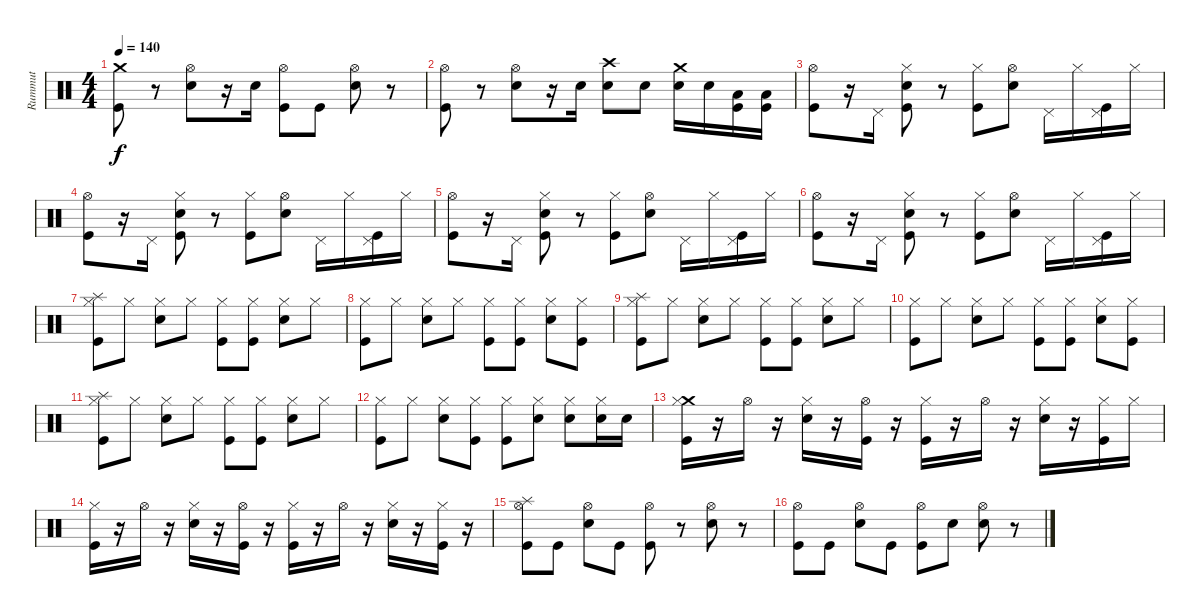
\track ("Rummut" "Rummut") {instrument percussion}
\staff {score}
\articulation defaults
\ts (4 4)
\tempo 140
\clef neutral
\ks c
("Crash medium (hit)" "Kick (hit)").8{dy f} r.8 ("Hi-Hat (open)" "Snare (hit) 2").8 r.16 "Snare (hit) 2".16 ("Hi-Hat (open)" "Kick (hit)").8 "Kick (hit)".8 ("Hi-Hat (open)" "Snare (hit) 2").8 r.8 |
("Hi-Hat (open)" "Kick (hit)").8 r.8 ("Hi-Hat (open)" "Snare (hit) 2").8 r.16 "Snare (hit) 2".16 ("Crash high (hit)" "Snare (hit) 2").8 "Snare (hit) 2".8 ("Crash medium (hit)" "Snare (hit) 2").16 "Snare (hit) 2".16 ("Low Tom (hit)" "Kick (hit)").16 ("Low Tom (hit)" "Kick (hit)").16 |
("Hi-Hat (open)" "Kick (hit)").8 r.16 "Pedal Hi-Hat (hit)".16 ("Hi-Hat (closed)" "Kick (hit)" "Snare (hit) 2").8 r.8 ("Hi-Hat (closed)" "Kick (hit)").8 ("Hi-Hat (open)" "Snare (hit) 2").8 "Pedal Hi-Hat (hit)".16 "Hi-Hat (closed)".16 ("Pedal Hi-Hat (hit)" "Kick (hit)").16 "Hi-Hat (closed)".16 |
("Hi-Hat (open)" "Kick (hit)").8 r.16 "Pedal Hi-Hat (hit)".16 ("Hi-Hat (closed)" "Kick (hit)" "Snare (hit) 2").8 r.8 ("Hi-Hat (closed)" "Kick (hit)").8 ("Hi-Hat (open)" "Snare (hit) 2").8 "Pedal Hi-Hat (hit)".16 "Hi-Hat (closed)".16 ("Pedal Hi-Hat (hit)" "Kick (hit)").16 "Hi-Hat (closed)".16 |
("Hi-Hat (open)" "Kick (hit)").8 r.16 "Pedal Hi-Hat (hit)".16 ("Hi-Hat (closed)" "Kick (hit)" "Snare (hit) 2").8 r.8 ("Hi-Hat (closed)" "Kick (hit)").8 ("Hi-Hat (open)" "Snare (hit) 2").8 "Pedal Hi-Hat (hit)".16 "Hi-Hat (closed)".16 ("Pedal Hi-Hat (hit)" "Kick (hit)").16 "Hi-Hat (closed)".16 |
("Hi-Hat (open)" "Kick (hit)").8 r.16 "Pedal Hi-Hat (hit)".16 ("Hi-Hat (closed)" "Kick (hit)" "Snare (hit) 2").8 r.8 ("Hi-Hat (closed)" "Kick (hit)").8 ("Hi-Hat (open)" "Snare (hit) 2").8 "Pedal Hi-Hat (hit)".16 "Hi-Hat (closed)".16 ("Pedal Hi-Hat (hit)" "Kick (hit)").16 "Hi-Hat (closed)".16 |
("Splash (hit)" "Hi-Hat (closed)" "Kick (hit)").8 "Hi-Hat (closed)".8 ("Hi-Hat (closed)" "Snare (hit) 2").8 "Hi-Hat (closed)".8 ("Hi-Hat (closed)" "Kick (hit)").8 ("Hi-Hat (closed)" "Kick (hit)").8 ("Hi-Hat (closed)" "Snare (hit) 2").8 "Hi-Hat (closed)".8 |
("Hi-Hat (closed)" "Kick (hit)").8 "Hi-Hat (closed)".8 ("Hi-Hat (closed)" "Snare (hit) 2").8 "Hi-Hat (closed)".8 ("Hi-Hat (closed)" "Kick (hit)").8 ("Hi-Hat (closed)" "Kick (hit)").8 ("Hi-Hat (closed)" "Snare (hit) 2").8 ("Hi-Hat (closed)" "Kick (hit)").8 |
("Splash (hit)" "Hi-Hat (closed)" "Kick (hit)").8 "Hi-Hat (closed)".8 ("Hi-Hat (closed)" "Snare (hit) 2").8 "Hi-Hat (closed)".8 ("Hi-Hat (closed)" "Kick (hit)").8 ("Hi-Hat (closed)" "Kick (hit)").8 ("Hi-Hat (closed)" "Snare (hit) 2").8 "Hi-Hat (closed)".8 |
("Hi-Hat (closed)" "Kick (hit)").8 "Hi-Hat (closed)".8 ("Hi-Hat (closed)" "Snare (hit) 2").8 "Hi-Hat (closed)".8 ("Hi-Hat (closed)" "Kick (hit)").8 ("Hi-Hat (closed)" "Kick (hit)").8 ("Hi-Hat (closed)" "Snare (hit) 2").8 ("Hi-Hat (closed)" "Kick (hit)").8 |
("Splash (hit)" "Hi-Hat (closed)" "Kick (hit)").8 "Hi-Hat (closed)".8 ("Hi-Hat (closed)" "Snare (hit) 2").8 "Hi-Hat (closed)".8 ("Hi-Hat (closed)" "Kick (hit)").8 ("Hi-Hat (closed)" "Kick (hit)").8 ("Hi-Hat (closed)" "Snare (hit) 2").8 "Hi-Hat (closed)".8 |
("Hi-Hat (closed)" "Kick (hit)").8 "Hi-Hat (closed)".8 ("Hi-Hat (closed)" "Snare (hit) 2").8 ("Hi-Hat (closed)" "Kick (hit)").8 ("Hi-Hat (closed)" "Kick (hit)").8 ("Hi-Hat (closed)" "Snare (hit) 2").8 ("Hi-Hat (closed)" "Snare (hit) 2").8 ("Hi-Hat (closed)" "Snare (hit) 2").16 "Snare (hit) 2".16 |
("Crash medium (hit)" "Hi-Hat (closed)" "Kick (hit)").16 r.16 "Hi-Hat (open)".16 r.16 ("Hi-Hat (closed)" "Snare (hit) 2").16 r.16 ("Hi-Hat (open)" "Kick (hit)").16 r.16 ("Hi-Hat (closed)" "Kick (hit)").16 r.16 "Hi-Hat (open)".16 r.16 ("Hi-Hat (closed)" "Snare (hit) 2").16 r.16 ("Hi-Hat (closed)" "Kick (hit)").16 "Hi-Hat (closed)".16 |
("Hi-Hat (closed)" "Kick (hit)").16 r.16 "Hi-Hat (open)".16 r.16 ("Hi-Hat (closed)" "Snare (hit) 2").16 r.16 ("Hi-Hat (open)" "Kick (hit)").16 r.16 ("Hi-Hat (closed)" "Kick (hit)").16 r.16 "Hi-Hat (open)".16 r.16 ("Hi-Hat (closed)" "Snare (hit) 2").16 r.16 ("Hi-Hat (closed)" "Kick (hit)").16 r.16 |
("Splash (hit)" "Hi-Hat (open)" "Kick (hit)").8 "Kick (hit)".8 ("Hi-Hat (open)" "Snare (hit) 2").8 "Kick (hit)".8 ("Hi-Hat (open)" "Kick (hit)").8 r.8 ("Hi-Hat (open)" "Snare (hit) 2").8 r.8 |
("Hi-Hat (open)" "Kick (hit)").8 "Kick (hit)".8 ("Hi-Hat (open)" "Snare (hit) 2").8 "Kick (hit)".8 ("Hi-Hat (open)" "Kick (hit)").8 "Snare (hit) 2".8 ("Hi-Hat (open)" "Snare (hit) 2").8 r.8
